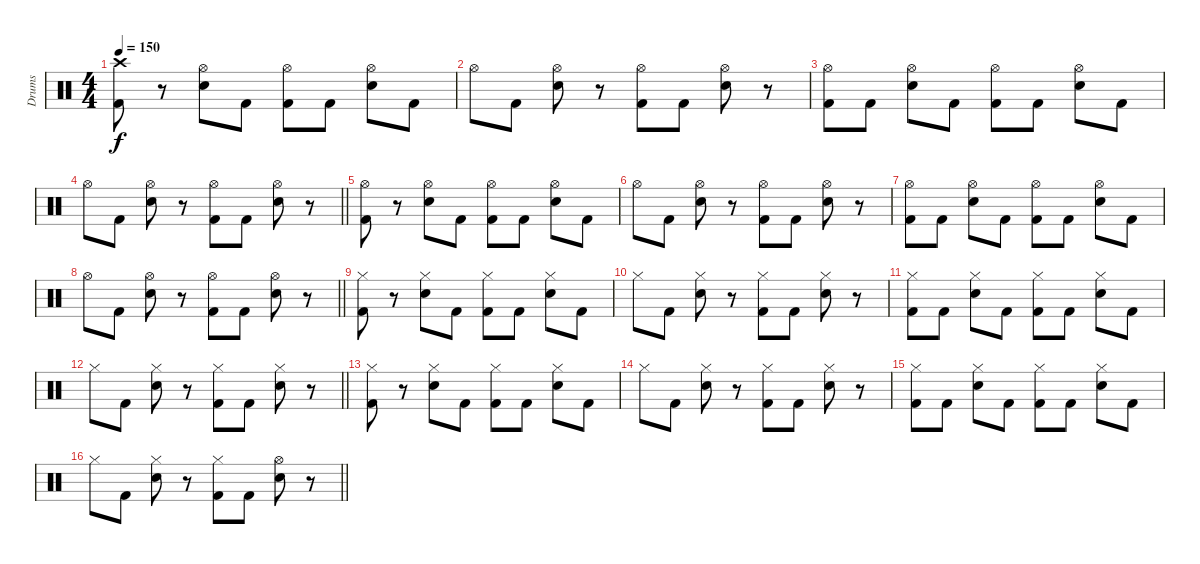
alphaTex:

\track ("Drums" "Drums") {instrument percussion}
\staff {score}
\articulation defaults
\ts (4 4)
\tempo 150
\clef neutral
\ks c
("Crash high (hit)" "Kick (hit) 2").8{dy f} r.8 ("Hi-Hat (open)" "Snare (hit) 2").8 "Kick (hit) 2".8 ("Hi-Hat (open)" "Kick (hit) 2").8 "Kick (hit) 2".8 ("Hi-Hat (open)" "Snare (hit) 2").8 "Kick (hit) 2".8 |
"Hi-Hat (open)".8 "Kick (hit) 2".8 ("Hi-Hat (open)" "Snare (hit) 2").8 r.8 ("Hi-Hat (open)" "Kick (hit) 2").8 "Kick (hit) 2".8 ("Hi-Hat (open)" "Snare (hit) 2").8 r.8 |
("Hi-Hat (open)" "Kick (hit) 2").8 "Kick (hit) 2".8 ("Hi-Hat (open)" "Snare (hit) 2").8 "Kick (hit) 2".8 ("Hi-Hat (open)" "Kick (hit) 2").8 "Kick (hit) 2".8 ("Hi-Hat (open)" "Snare (hit) 2").8 "Kick (hit) 2".8 |
\barLineRight lightlight "Hi-Hat (open)".8 "Kick (hit) 2".8
("Hi-Hat (open)" "Snare (hit) 2").8 r.8 ("Hi-Hat (open)" "Kick (hit) 2").8 "Kick (hit) 2".8 ("Hi-Hat (open)" "Snare (hit) 2").8 r.8 |
("Hi-Hat (open)" "Kick (hit) 2").8 r.8 ("Hi-Hat (open)" "Snare (hit) 2").8 "Kick (hit) 2".8 ("Hi-Hat (open)" "Kick (hit) 2").8 "Kick (hit) 2".8 ("Hi-Hat (open)" "Snare (hit) 2").8 "Kick (hit) 2".8 |
"Hi-Hat (open)".8 "Kick (hit) 2".8 ("Hi-Hat (open)" "Snare (hit) 2").8 r.8 ("Hi-Hat (open)" "Kick (hit) 2").8 "Kick (hit) 2".8 ("Hi-Hat (open)" "Snare (hit) 2").8 r.8 |
("Hi-Hat (open)" "Kick (hit) 2").8 "Kick (hit) 2".8 ("Hi-Hat (open)" "Snare (hit) 2").8 "Kick (hit) 2".8 ("Hi-Hat (open)" "Kick (hit) 2").8 "Kick (hit) 2".8 ("Hi-Hat (open)" "Snare (hit) 2").8 "Kick (hit) 2".8 |
\barLineRight lightlight "Hi-Hat (open)".8 "Kick (hit) 2".8
("Hi-Hat (open)" "Snare (hit) 2").8 r.8 ("Hi-Hat (open)" "Kick (hit) 2").8 "Kick (hit) 2".8 ("Hi-Hat (open)" "Snare (hit) 2").8 r.8 |
("Hi-Hat (closed)" "Kick (hit) 2").8 r.8 ("Hi-Hat (closed)" "Snare (hit) 2").8 "Kick (hit) 2".8 ("Hi-Hat (closed)" "Kick (hit) 2").8 "Kick (hit) 2".8 ("Hi-Hat (closed)" "Snare (hit) 2").8 "Kick (hit) 2".8 |
"Hi-Hat (closed)".8 "Kick (hit) 2".8 ("Hi-Hat (closed)" "Snare (hit) 2").8 r.8 ("Hi-Hat (closed)" "Kick (hit) 2").8 "Kick (hit) 2".8 ("Hi-Hat (closed)" "Snare (hit) 2").8 r.8 |
("Hi-Hat (closed)" "Kick (hit) 2").8 "Kick (hit) 2".8 ("Hi-Hat (closed)" "Snare (hit) 2").8 "Kick (hit) 2".8 ("Hi-Hat (closed)" "Kick (hit) 2").8 "Kick (hit) 2".8 ("Hi-Hat (closed)" "Snare (hit) 2").8 "Kick (hit) 2".8 |
\barLineRight lightlight "Hi-Hat (closed)".8 "Kick (hit) 2".8
("Hi-Hat (closed)" "Snare (hit) 2").8 r.8 ("Hi-Hat (closed)" "Kick (hit) 2").8 "Kick (hit) 2".8 ("Hi-Hat (closed)" "Snare (hit) 2").8 r.8 |
("Hi-Hat (closed)" "Kick (hit) 2").8 r.8 ("Hi-Hat (closed)" "Snare (hit) 2").8 "Kick (hit) 2".8 ("Hi-Hat (closed)" "Kick (hit) 2").8 "Kick (hit) 2".8 ("Hi-Hat (closed)" "Snare (hit) 2").8 "Kick (hit) 2".8 |
"Hi-Hat (closed)".8 "Kick (hit) 2".8 ("Hi-Hat (closed)" "Snare (hit) 2").8 r.8 ("Hi-Hat (closed)" "Kick (hit) 2").8 "Kick (hit) 2".8 ("Hi-Hat (closed)" "Snare (hit) 2").8 r.8 |
("Hi-Hat (closed)" "Kick (hit) 2").8 "Kick (hit) 2".8 ("Hi-Hat (closed)" "Snare (hit) 2").8 "Kick (hit) 2".8 ("Hi-Hat (closed)" "Kick (hit) 2").8 "Kick (hit) 2".8 ("Hi-Hat (closed)" "Snare (hit) 2").8 "Kick (hit) 2".8 |
\barLineRight lightlight "Hi-Hat (closed)".8 "Kick (hit) 2".8
("Hi-Hat (closed)" "Snare (hit) 2").8 r.8 ("Hi-Hat (closed)" "Kick (hit) 2").8 "Kick (hit) 2".8 ("Hi-Hat (open)" "Snare (hit) 2").8 r.8
